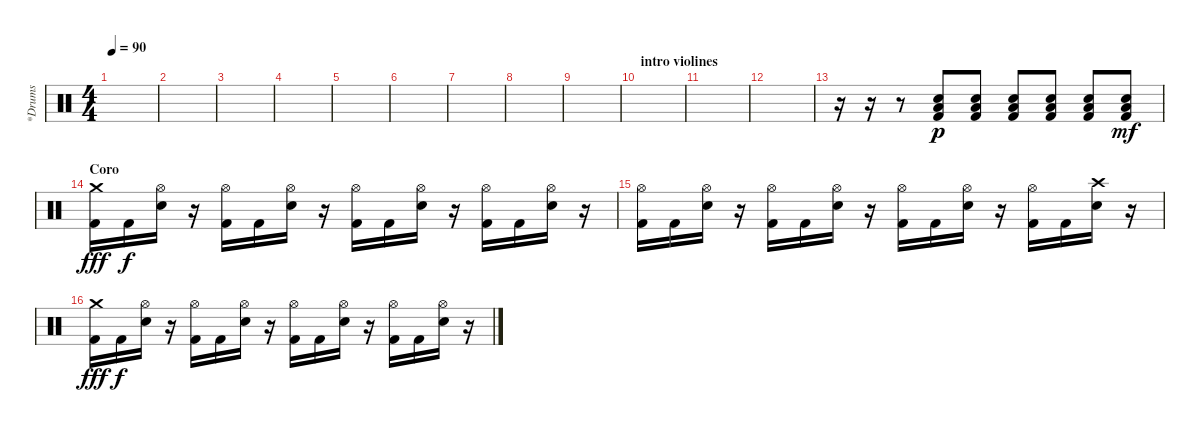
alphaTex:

\track ("*Drums" "*Drums") {instrument percussion}
\staff {score}
\articulation defaults
\ts (4 4)
\tempo 90
\clef neutral
\ks c
|
|
|
|
|
|
|
|
|
\section ("" "intro violines")
|
|
|
r.16 r.16 r.8 ("Electric Snare (hit)" "Low Floor Tom (hit)" "Kick (hit) 2").8{dy p} ("Electric Snare (hit)" "Low Floor Tom (hit)" "Kick (hit) 2").8 ("Electric Snare (hit)" "Low Floor Tom (hit)" "Kick (hit) 2").8 ("Electric Snare (hit)" "Low Floor Tom (hit)" "Kick (hit) 2").8 ("Electric Snare (hit)" "Low Floor Tom (hit)" "Kick (hit) 2").8 ("Electric Snare (hit)" "Low Floor Tom (hit)" "Kick (hit) 2").8{dy mf} |
\section ("" "Coro")
("Crash medium (hit)" "Kick (hit) 2").16{dy fff} "Kick (hit) 2".16{dy f} ("Hi-Hat (open)" "Electric Snare (hit)").16 r.16 ("Hi-Hat (open)" "Kick (hit) 2").16 "Kick (hit) 2".16 ("Hi-Hat (open)" "Electric Snare (hit)").16 r.16 ("Hi-Hat (open)" "Kick (hit) 2").16 "Kick (hit) 2".16 ("Hi-Hat (open)" "Electric Snare (hit)").16 r.16 ("Hi-Hat (open)" "Kick (hit) 2").16 "Kick (hit) 2".16 ("Hi-Hat (open)" "Electric Snare (hit)").16 r.16 |
("Hi-Hat (open)" "Kick (hit) 2").16 "Kick (hit) 2".16 ("Hi-Hat (open)" "Electric Snare (hit)").16 r.16 ("Hi-Hat (open)" "Kick (hit) 2").16 "Kick (hit) 2".16 ("Hi-Hat (open)" "Electric Snare (hit)").16 r.16 ("Hi-Hat (open)" "Kick (hit) 2").16 "Kick (hit) 2".16 ("Hi-Hat (open)" "Electric Snare (hit)").16 r.16 ("Hi-Hat (open)" "Kick (hit) 2").16 "Kick (hit) 2".16 ("Crash high (hit)" "Electric Snare (hit)").16 r.16 |
("Crash medium (hit)" "Kick (hit) 2").16{dy fff} "Kick (hit) 2".16{dy f} ("Hi-Hat (open)" "Electric Snare (hit)").16 r.16 ("Hi-Hat (open)" "Kick (hit) 2").16 "Kick (hit) 2".16 ("Hi-Hat (open)" "Electric Snare (hit)").16 r.16 ("Hi-Hat (open)" "Kick (hit) 2").16 "Kick (hit) 2".16 ("Hi-Hat (open)" "Electric Snare (hit)").16 r.16 ("Hi-Hat (open)" "Kick (hit) 2").16 "Kick (hit) 2".16 ("Hi-Hat (open)" "Electric Snare (hit)").16 r.16
